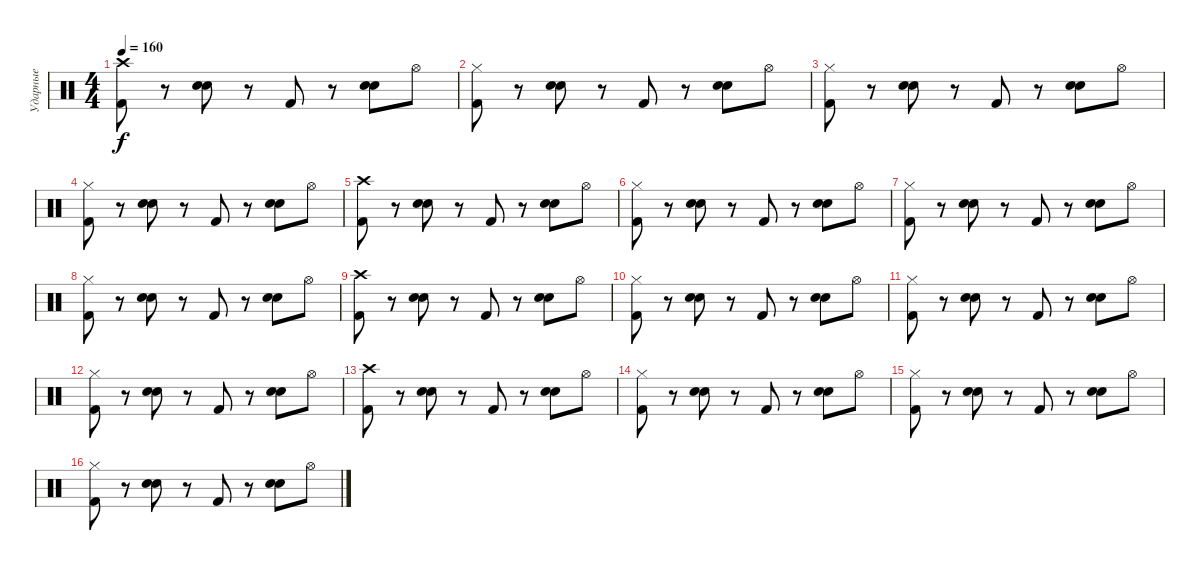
\track ("Ударные" "Ударные") {instrument percussion}
\staff {score}
\articulation defaults
\ts (4 4)
\tempo 160
\clef neutral
\ks c
("Crash high (hit)" "Kick (hit) 2").8{dy f} r.8 ("Hand Clap (hit)" "Electric Snare (hit)").8 r.8 "Kick (hit) 2".8 r.8 ("Hand Clap (hit)" "Electric Snare (hit)").8 "Hi-Hat (open)".8 |
("Hi-Hat (closed)" "Kick (hit) 2").8 r.8 ("Hand Clap (hit)" "Electric Snare (hit)").8 r.8 "Kick (hit) 2".8 r.8 ("Hand Clap (hit)" "Electric Snare (hit)").8 "Hi-Hat (open)".8 |
("Hi-Hat (closed)" "Kick (hit) 2").8 r.8 ("Hand Clap (hit)" "Electric Snare (hit)").8 r.8 "Kick (hit) 2".8 r.8 ("Hand Clap (hit)" "Electric Snare (hit)").8 "Hi-Hat (open)".8 |
("Hi-Hat (closed)" "Kick (hit) 2").8 r.8 ("Hand Clap (hit)" "Electric Snare (hit)").8 r.8 "Kick (hit) 2".8 r.8 ("Hand Clap (hit)" "Electric Snare (hit)").8 "Hi-Hat (open)".8 |
("Crash high (hit)" "Kick (hit) 2").8 r.8 ("Hand Clap (hit)" "Electric Snare (hit)").8 r.8 "Kick (hit) 2".8 r.8 ("Hand Clap (hit)" "Electric Snare (hit)").8 "Hi-Hat (open)".8 |
("Hi-Hat (closed)" "Kick (hit) 2").8 r.8 ("Hand Clap (hit)" "Electric Snare (hit)").8 r.8 "Kick (hit) 2".8 r.8 ("Hand Clap (hit)" "Electric Snare (hit)").8 "Hi-Hat (open)".8 |
("Hi-Hat (closed)" "Kick (hit) 2").8 r.8 ("Hand Clap (hit)" "Electric Snare (hit)").8 r.8 "Kick (hit) 2".8 r.8 ("Hand Clap (hit)" "Electric Snare (hit)").8 "Hi-Hat (open)".8 |
("Hi-Hat (closed)" "Kick (hit) 2").8 r.8 ("Hand Clap (hit)" "Electric Snare (hit)").8 r.8 "Kick (hit) 2".8 r.8 ("Hand Clap (hit)" "Electric Snare (hit)").8 "Hi-Hat (open)".8 |
("Crash high (hit)" "Kick (hit) 2").8 r.8 ("Hand Clap (hit)" "Electric Snare (hit)").8 r.8 "Kick (hit) 2".8 r.8 ("Hand Clap (hit)" "Electric Snare (hit)").8 "Hi-Hat (open)".8 |
("Hi-Hat (closed)" "Kick (hit) 2").8 r.8 ("Hand Clap (hit)" "Electric Snare (hit)").8 r.8 "Kick (hit) 2".8 r.8 ("Hand Clap (hit)" "Electric Snare (hit)").8 "Hi-Hat (open)".8 |
("Hi-Hat (closed)" "Kick (hit) 2").8 r.8 ("Hand Clap (hit)" "Electric Snare (hit)").8 r.8 "Kick (hit) 2".8 r.8 ("Hand Clap (hit)" "Electric Snare (hit)").8 "Hi-Hat (open)".8 |
("Hi-Hat (closed)" "Kick (hit) 2").8 r.8 ("Hand Clap (hit)" "Electric Snare (hit)").8 r.8 "Kick (hit) 2".8 r.8 ("Hand Clap (hit)" "Electric Snare (hit)").8 "Hi-Hat (open)".8 |
("Crash high (hit)" "Kick (hit) 2").8 r.8 ("Hand Clap (hit)" "Electric Snare (hit)").8 r.8 "Kick (hit) 2".8 r.8 ("Hand Clap (hit)" "Electric Snare (hit)").8 "Hi-Hat (open)".8 |
("Hi-Hat (closed)" "Kick (hit) 2").8 r.8 ("Hand Clap (hit)" "Electric Snare (hit)").8 r.8 "Kick (hit) 2".8 r.8 ("Hand Clap (hit)" "Electric Snare (hit)").8 "Hi-Hat (open)".8 |
("Hi-Hat (closed)" "Kick (hit) 2").8 r.8 ("Hand Clap (hit)" "Electric Snare (hit)").8 r.8 "Kick (hit) 2".8 r.8 ("Hand Clap (hit)" "Electric Snare (hit)").8 "Hi-Hat (open)".8 |
("Hi-Hat (closed)" "Kick (hit) 2").8 r.8 ("Hand Clap (hit)" "Electric Snare (hit)").8 r.8 "Kick (hit) 2".8 r.8 ("Hand Clap (hit)" "Electric Snare (hit)").8 "Hi-Hat (open)".8
